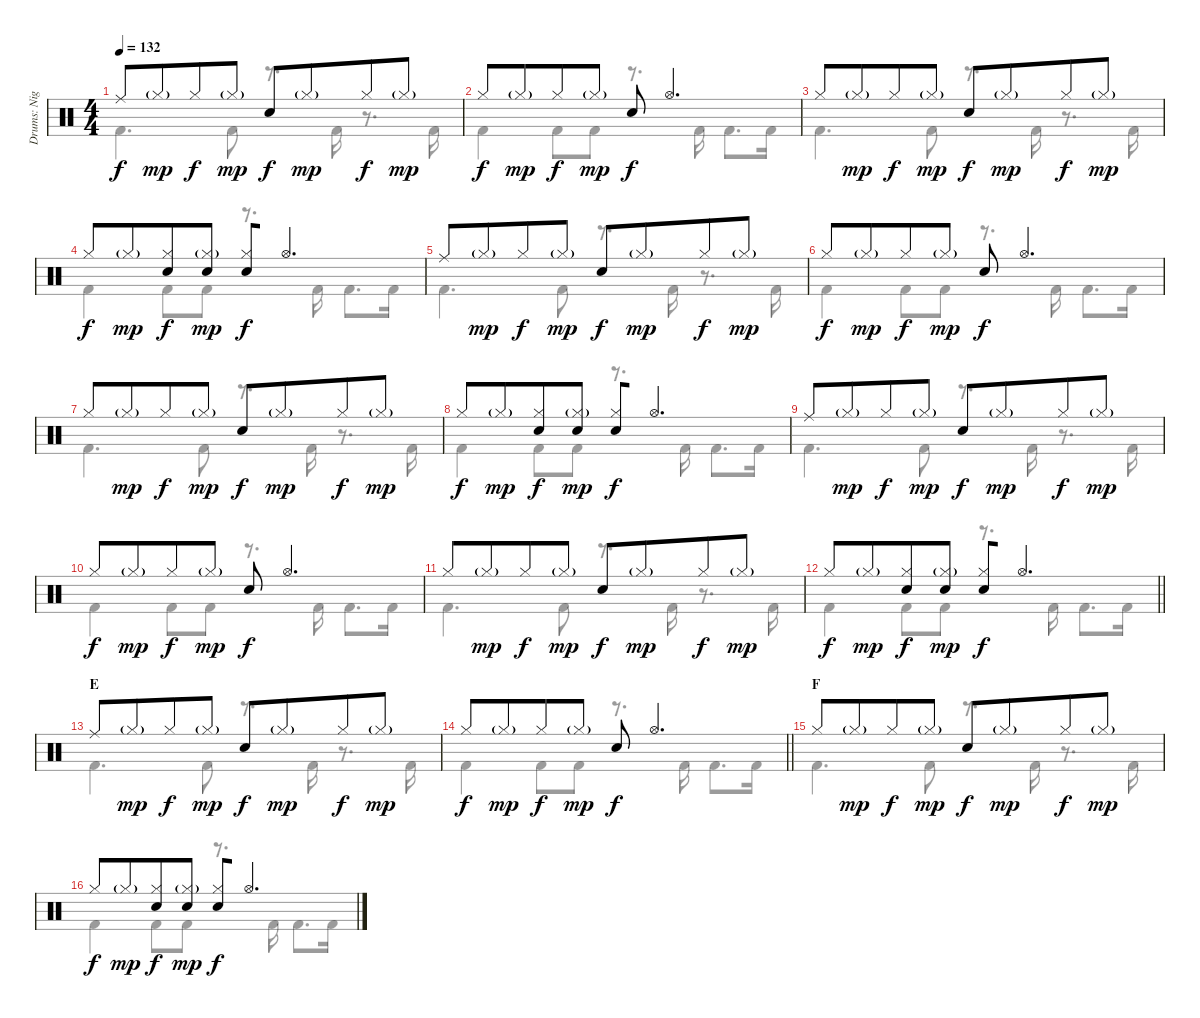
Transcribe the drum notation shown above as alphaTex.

\track ("Drums: Nigel Ollson" "Drums: Nig") {instrument percussion}
\staff {score}
\articulation defaults
\voice
\ts (4 4)
\tempo 132
\clef neutral
\ks c "Ride (middle)".8{dy f} "Hi-Hat (closed)"{g}.8{dy mp beam merge} "Hi-Hat (closed)".8{dy f} "Hi-Hat (closed)"{g}.8{dy mp} "Electric Snare (hit)".8{dy f} "Hi-Hat (closed)"{g}.8{dy mp beam merge} "Hi-Hat (closed)".8{dy f} "Hi-Hat (closed)"{g}.8{dy mp}
|
"Hi-Hat (closed)".8{dy f} "Hi-Hat (closed)"{g}.8{dy mp beam merge} "Hi-Hat (closed)".8{dy f} "Hi-Hat (closed)"{g}.8{dy mp} "Electric Snare (hit)".8{dy f} "Hi-Hat (open)".4{d} |
"Hi-Hat (closed)".8 "Hi-Hat (closed)"{g}.8{dy mp beam merge} "Hi-Hat (closed)".8{dy f} "Hi-Hat (closed)"{g}.8{dy mp} "Electric Snare (hit)".8{dy f} "Hi-Hat (closed)"{g}.8{dy mp beam merge} "Hi-Hat (closed)".8{dy f} "Hi-Hat (closed)"{g}.8{dy mp} |
"Hi-Hat (closed)".8{dy f} "Hi-Hat (closed)"{g}.8{dy mp beam merge} ("Hi-Hat (closed)" "Electric Snare (hit)").8{dy f} ("Hi-Hat (closed)"{g} "Electric Snare (hit)").8{dy mp} ("Hi-Hat (closed)" "Electric Snare (hit)").8{dy f beam merge} "Hi-Hat (open)".4{d} |
"Ride (middle)".8 "Hi-Hat (closed)"{g}.8{dy mp beam merge} "Hi-Hat (closed)".8{dy f} "Hi-Hat (closed)"{g}.8{dy mp} "Electric Snare (hit)".8{dy f} "Hi-Hat (closed)"{g}.8{dy mp beam merge} "Hi-Hat (closed)".8{dy f} "Hi-Hat (closed)"{g}.8{dy mp} |
"Hi-Hat (closed)".8{dy f} "Hi-Hat (closed)"{g}.8{dy mp beam merge} "Hi-Hat (closed)".8{dy f} "Hi-Hat (closed)"{g}.8{dy mp} "Electric Snare (hit)".8{dy f} "Hi-Hat (open)".4{d} |
"Hi-Hat (closed)".8 "Hi-Hat (closed)"{g}.8{dy mp beam merge} "Hi-Hat (closed)".8{dy f} "Hi-Hat (closed)"{g}.8{dy mp} "Electric Snare (hit)".8{dy f} "Hi-Hat (closed)"{g}.8{dy mp beam merge} "Hi-Hat (closed)".8{dy f} "Hi-Hat (closed)"{g}.8{dy mp} |
"Hi-Hat (closed)".8{dy f} "Hi-Hat (closed)"{g}.8{dy mp beam merge} ("Hi-Hat (closed)" "Electric Snare (hit)").8{dy f} ("Hi-Hat (closed)"{g} "Electric Snare (hit)").8{dy mp} ("Hi-Hat (closed)" "Electric Snare (hit)").8{dy f beam merge} "Hi-Hat (open)".4{d} |
"Ride (middle)".8 "Hi-Hat (closed)"{g}.8{dy mp beam merge} "Hi-Hat (closed)".8{dy f} "Hi-Hat (closed)"{g}.8{dy mp} "Electric Snare (hit)".8{dy f} "Hi-Hat (closed)"{g}.8{dy mp beam merge} "Hi-Hat (closed)".8{dy f} "Hi-Hat (closed)"{g}.8{dy mp} |
"Hi-Hat (closed)".8{dy f} "Hi-Hat (closed)"{g}.8{dy mp beam merge} "Hi-Hat (closed)".8{dy f} "Hi-Hat (closed)"{g}.8{dy mp} "Electric Snare (hit)".8{dy f} "Hi-Hat (open)".4{d} |
"Hi-Hat (closed)".8 "Hi-Hat (closed)"{g}.8{dy mp beam merge} "Hi-Hat (closed)".8{dy f} "Hi-Hat (closed)"{g}.8{dy mp} "Electric Snare (hit)".8{dy f} "Hi-Hat (closed)"{g}.8{dy mp beam merge} "Hi-Hat (closed)".8{dy f} "Hi-Hat (closed)"{g}.8{dy mp} |
\barLineRight lightlight "Hi-Hat (closed)".8{dy f} "Hi-Hat (closed)"{g}.8{dy mp beam merge}
("Hi-Hat (closed)" "Electric Snare (hit)").8{dy f} ("Hi-Hat (closed)"{g} "Electric Snare (hit)").8{dy mp} ("Hi-Hat (closed)" "Electric Snare (hit)").8{dy f beam merge} "Hi-Hat (open)".4{d} |
\section ("" "E")
"Ride (middle)".8 "Hi-Hat (closed)"{g}.8{dy mp beam merge} "Hi-Hat (closed)".8{dy f} "Hi-Hat (closed)"{g}.8{dy mp} "Electric Snare (hit)".8{dy f} "Hi-Hat (closed)"{g}.8{dy mp beam merge} "Hi-Hat (closed)".8{dy f} "Hi-Hat (closed)"{g}.8{dy mp} |
\barLineRight lightlight "Hi-Hat (closed)".8{dy f} "Hi-Hat (closed)"{g}.8{dy mp beam merge} "Hi-Hat (closed)".8{dy f} "Hi-Hat (closed)"{g}.8{dy mp} "Electric Snare (hit)".8{dy f} "Hi-Hat (open)".4{d}
|
\section ("" "F")
"Hi-Hat (closed)".8 "Hi-Hat (closed)"{g}.8{dy mp beam merge} "Hi-Hat (closed)".8{dy f} "Hi-Hat (closed)"{g}.8{dy mp} "Electric Snare (hit)".8{dy f} "Hi-Hat (closed)"{g}.8{dy mp beam merge} "Hi-Hat (closed)".8{dy f} "Hi-Hat (closed)"{g}.8{dy mp} |
"Hi-Hat (closed)".8{dy f} "Hi-Hat (closed)"{g}.8{dy mp beam merge} ("Hi-Hat (closed)" "Electric Snare (hit)").8{dy f} ("Hi-Hat (closed)"{g} "Electric Snare (hit)").8{dy mp} ("Hi-Hat (closed)" "Electric Snare (hit)").8{dy f beam merge} "Hi-Hat (open)".4{d}
\voice
\clef neutral
\ottava regular
\simile none
\ks c "Kick (hit) 2".4{d dy f} "Kick (hit) 2".8
r.8{d} "Kick (hit) 2".16 r.8{d} "Kick (hit) 2".16 |
"Kick (hit) 2".4 "Kick (hit) 2".8 "Kick (hit) 2".8 r.8{d} "Kick (hit) 2".16 "Kick (hit) 2".8{d} "Kick (hit) 2".16 |
"Kick (hit) 2".4{d} "Kick (hit) 2".8 r.8{d} "Kick (hit) 2".16 r.8{d} "Kick (hit) 2".16 |
"Kick (hit) 2".4 "Kick (hit) 2".8 "Kick (hit) 2".8 r.8{d} "Kick (hit) 2".16 "Kick (hit) 2".8{d} "Kick (hit) 2".16 |
"Kick (hit) 2".4{d} "Kick (hit) 2".8 r.8{d} "Kick (hit) 2".16 r.8{d} "Kick (hit) 2".16 |
"Kick (hit) 2".4 "Kick (hit) 2".8 "Kick (hit) 2".8 r.8{d} "Kick (hit) 2".16 "Kick (hit) 2".8{d} "Kick (hit) 2".16 |
"Kick (hit) 2".4{d} "Kick (hit) 2".8 r.8{d} "Kick (hit) 2".16 r.8{d} "Kick (hit) 2".16 |
"Kick (hit) 2".4 "Kick (hit) 2".8 "Kick (hit) 2".8 r.8{d} "Kick (hit) 2".16 "Kick (hit) 2".8{d} "Kick (hit) 2".16 |
"Kick (hit) 2".4{d} "Kick (hit) 2".8 r.8{d} "Kick (hit) 2".16 r.8{d} "Kick (hit) 2".16 |
"Kick (hit) 2".4 "Kick (hit) 2".8 "Kick (hit) 2".8 r.8{d} "Kick (hit) 2".16 "Kick (hit) 2".8{d} "Kick (hit) 2".16 |
"Kick (hit) 2".4{d} "Kick (hit) 2".8 r.8{d} "Kick (hit) 2".16 r.8{d} "Kick (hit) 2".16 |
\barLineRight lightlight "Kick (hit) 2".4 "Kick (hit) 2".8 "Kick (hit) 2".8
r.8{d} "Kick (hit) 2".16 "Kick (hit) 2".8{d} "Kick (hit) 2".16 |
"Kick (hit) 2".4{d} "Kick (hit) 2".8 r.8{d} "Kick (hit) 2".16 r.8{d} "Kick (hit) 2".16 |
\barLineRight lightlight "Kick (hit) 2".4 "Kick (hit) 2".8 "Kick (hit) 2".8
r.8{d} "Kick (hit) 2".16 "Kick (hit) 2".8{d} "Kick (hit) 2".16 |
"Kick (hit) 2".4{d} "Kick (hit) 2".8 r.8{d} "Kick (hit) 2".16 r.8{d} "Kick (hit) 2".16 |
"Kick (hit) 2".4 "Kick (hit) 2".8 "Kick (hit) 2".8 r.8{d} "Kick (hit) 2".16 "Kick (hit) 2".8{d} "Kick (hit) 2".16
